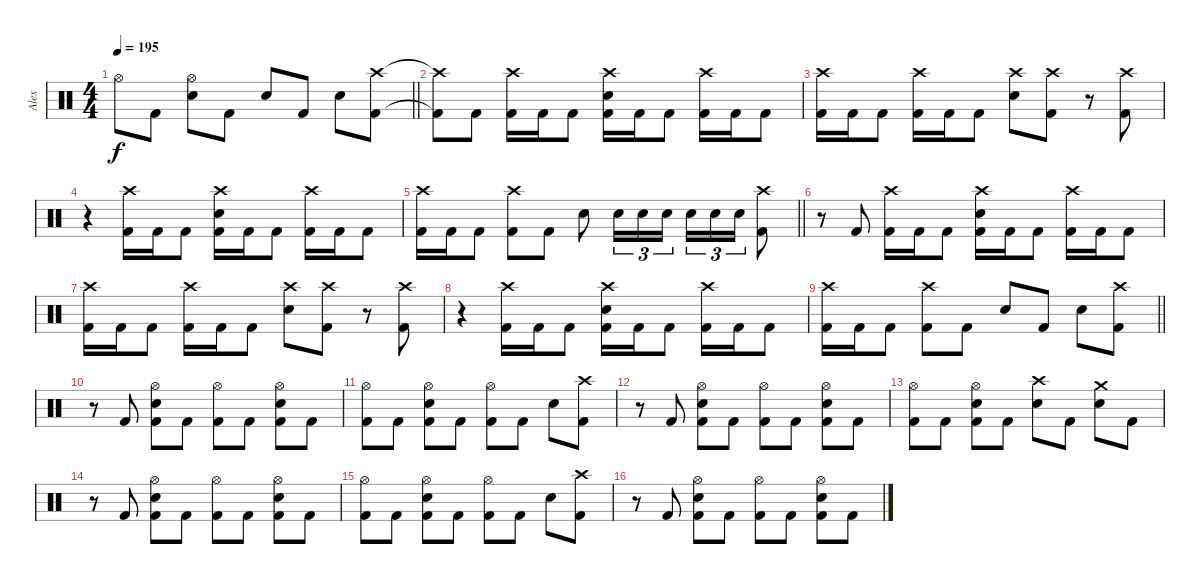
\track ("Alex" "Alex") {instrument percussion}
\staff {score}
\articulation defaults
\ts (4 4)
\tempo 195
\clef neutral
\barLineRight lightlight
\ks c "Hi-Hat (open)".8{dy f} "Kick (hit) 2".8
("Hi-Hat (open)" "Electric Snare (hit)").8 "Kick (hit) 2".8 "Electric Snare (hit)".8 "Kick (hit) 2".8 "Electric Snare (hit)".8 ("Crash high (hit)" "Kick (hit) 2").8 |
("Crash high (hit)"{t} "Kick (hit) 2"{t}).8 "Kick (hit) 2".8 ("Crash high (hit)" "Kick (hit) 2").16 "Kick (hit) 2".16 "Kick (hit) 2".8 ("Crash high (hit)" "Electric Snare (hit)" "Kick (hit) 2").16 "Kick (hit) 2".16 "Kick (hit) 2".8 ("Crash high (hit)" "Kick (hit) 2").16 "Kick (hit) 2".16 "Kick (hit) 2".8 |
("Crash high (hit)" "Kick (hit) 2").16 "Kick (hit) 2".16 "Kick (hit) 2".8 ("Crash high (hit)" "Kick (hit) 2").16 "Kick (hit) 2".16 "Kick (hit) 2".8 ("Crash high (hit)" "Electric Snare (hit)").8 ("Crash high (hit)" "Kick (hit) 2").8 r.8 ("Crash high (hit)" "Kick (hit) 2").8 |
r.4 ("Crash high (hit)" "Kick (hit) 2").16 "Kick (hit) 2".16 "Kick (hit) 2".8 ("Crash high (hit)" "Electric Snare (hit)" "Kick (hit) 2").16 "Kick (hit) 2".16 "Kick (hit) 2".8 ("Crash high (hit)" "Kick (hit) 2").16 "Kick (hit) 2".16 "Kick (hit) 2".8 |
\barLineRight lightlight
("Crash high (hit)" "Kick (hit) 2").16 "Kick (hit) 2".16 "Kick (hit) 2".8 ("Crash high (hit)" "Kick (hit) 2").8 "Kick (hit) 2".8 "Electric Snare (hit)".8 "Electric Snare (hit)".16{tu (3 2)} "Electric Snare (hit)".16{tu (3 2)} "Electric Snare (hit)".16{tu (3 2)} "Electric Snare (hit)".16{tu (3 2)} "Electric Snare (hit)".16{tu (3 2)} "Electric Snare (hit)".16{tu (3 2)} ("Crash high (hit)" "Kick (hit) 2").8 |
r.8 "Kick (hit) 2".8 ("Crash high (hit)" "Kick (hit) 2").16 "Kick (hit) 2".16 "Kick (hit) 2".8 ("Crash high (hit)" "Electric Snare (hit)" "Kick (hit) 2").16 "Kick (hit) 2".16 "Kick (hit) 2".8 ("Crash high (hit)" "Kick (hit) 2").16 "Kick (hit) 2".16 "Kick (hit) 2".8 |
("Crash high (hit)" "Kick (hit) 2").16 "Kick (hit) 2".16 "Kick (hit) 2".8 ("Crash high (hit)" "Kick (hit) 2").16 "Kick (hit) 2".16 "Kick (hit) 2".8 ("Crash high (hit)" "Electric Snare (hit)").8 ("Crash high (hit)" "Kick (hit) 2").8 r.8 ("Crash high (hit)" "Kick (hit) 2").8 |
r.4 ("Crash high (hit)" "Kick (hit) 2").16 "Kick (hit) 2".16 "Kick (hit) 2".8 ("Crash high (hit)" "Electric Snare (hit)" "Kick (hit) 2").16 "Kick (hit) 2".16 "Kick (hit) 2".8 ("Crash high (hit)" "Kick (hit) 2").16 "Kick (hit) 2".16 "Kick (hit) 2".8 |
\barLineRight lightlight
("Crash high (hit)" "Kick (hit) 2").16 "Kick (hit) 2".16 "Kick (hit) 2".8 ("Crash high (hit)" "Kick (hit) 2").8 "Kick (hit) 2".8 "Electric Snare (hit)".8 "Kick (hit) 2".8 "Electric Snare (hit)".8 ("Crash high (hit)" "Kick (hit) 2").8 |
r.8 "Kick (hit) 2".8 ("Hi-Hat (open)" "Electric Snare (hit)" "Kick (hit) 2").8 "Kick (hit) 2".8 ("Hi-Hat (open)" "Kick (hit) 2").8 "Kick (hit) 2".8 ("Hi-Hat (open)" "Electric Snare (hit)" "Kick (hit) 2").8 "Kick (hit) 2".8 |
("Hi-Hat (open)" "Kick (hit) 2").8 "Kick (hit) 2".8 ("Hi-Hat (open)" "Electric Snare (hit)" "Kick (hit) 2").8 "Kick (hit) 2".8 ("Hi-Hat (open)" "Kick (hit) 2").8 "Kick (hit) 2".8 "Electric Snare (hit)".8 ("Crash high (hit)" "Kick (hit) 2").8 |
r.8 "Kick (hit) 2".8 ("Hi-Hat (open)" "Electric Snare (hit)" "Kick (hit) 2").8 "Kick (hit) 2".8 ("Hi-Hat (open)" "Kick (hit) 2").8 "Kick (hit) 2".8 ("Hi-Hat (open)" "Electric Snare (hit)" "Kick (hit) 2").8 "Kick (hit) 2".8 |
("Hi-Hat (open)" "Kick (hit) 2").8 "Kick (hit) 2".8 ("Hi-Hat (open)" "Electric Snare (hit)" "Kick (hit) 2").8 "Kick (hit) 2".8 ("Crash high (hit)" "Electric Snare (hit)").8 "Kick (hit) 2".8 ("Crash medium (hit)" "Electric Snare (hit)").8 "Kick (hit) 2".8 |
r.8 "Kick (hit) 2".8 ("Hi-Hat (open)" "Electric Snare (hit)" "Kick (hit) 2").8 "Kick (hit) 2".8 ("Hi-Hat (open)" "Kick (hit) 2").8 "Kick (hit) 2".8 ("Hi-Hat (open)" "Electric Snare (hit)" "Kick (hit) 2").8 "Kick (hit) 2".8 |
("Hi-Hat (open)" "Kick (hit) 2").8 "Kick (hit) 2".8 ("Hi-Hat (open)" "Electric Snare (hit)" "Kick (hit) 2").8 "Kick (hit) 2".8 ("Hi-Hat (open)" "Kick (hit) 2").8 "Kick (hit) 2".8 "Electric Snare (hit)".8 ("Crash high (hit)" "Kick (hit) 2").8 |
r.8 "Kick (hit) 2".8 ("Hi-Hat (open)" "Electric Snare (hit)" "Kick (hit) 2").8 "Kick (hit) 2".8 ("Hi-Hat (open)" "Kick (hit) 2").8 "Kick (hit) 2".8 ("Hi-Hat (open)" "Electric Snare (hit)" "Kick (hit) 2").8 "Kick (hit) 2".8
